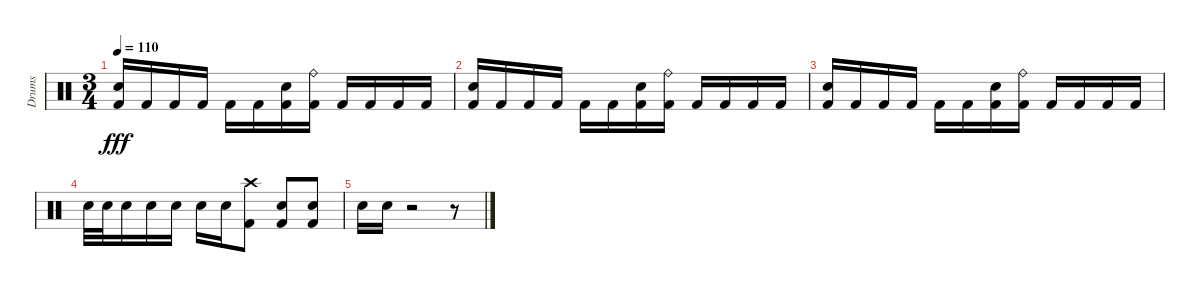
\track ("Drums" "Drums") {instrument percussion}
\staff {score}
\articulation defaults
\ts (3 4)
\tempo 110
\clef neutral
\ks c
("Electric Snare (hit)" "Kick (hit) 2").16{dy fff} "Kick (hit) 2".16 "Kick (hit) 2".16 "Kick (hit) 2".16 "Kick (hit) 2".16 "Kick (hit) 2".16 ("Electric Snare (hit)" "Kick (hit) 2").16 ("Ride (bell)" "Kick (hit) 2").16 "Kick (hit) 2".16 "Kick (hit) 2".16 "Kick (hit) 2".16 "Kick (hit) 2".16 |
("Electric Snare (hit)" "Kick (hit) 2").16 "Kick (hit) 2".16 "Kick (hit) 2".16 "Kick (hit) 2".16 "Kick (hit) 2".16 "Kick (hit) 2".16 ("Electric Snare (hit)" "Kick (hit) 2").16 ("Ride (bell)" "Kick (hit) 2").16 "Kick (hit) 2".16 "Kick (hit) 2".16 "Kick (hit) 2".16 "Kick (hit) 2".16 |
("Electric Snare (hit)" "Kick (hit) 2").16 "Kick (hit) 2".16 "Kick (hit) 2".16 "Kick (hit) 2".16 "Kick (hit) 2".16 "Kick (hit) 2".16 ("Electric Snare (hit)" "Kick (hit) 2").16 ("Ride (bell)" "Kick (hit) 2").16 "Kick (hit) 2".16 "Kick (hit) 2".16 "Kick (hit) 2".16 "Kick (hit) 2".16 |
"Electric Snare (hit)".32 "Electric Snare (hit)".32 "Electric Snare (hit)".16 "Electric Snare (hit)".16 "Electric Snare (hit)".16 "Electric Snare (hit)".16 "Electric Snare (hit)".16 ("Crash high (hit)" "Kick (hit) 2").8 ("Electric Snare (hit)" "Kick (hit) 2").8 ("Electric Snare (hit)" "Kick (hit) 2").8 |
"Electric Snare (hit)".16 "Electric Snare (hit)".16 r.2 r.8
